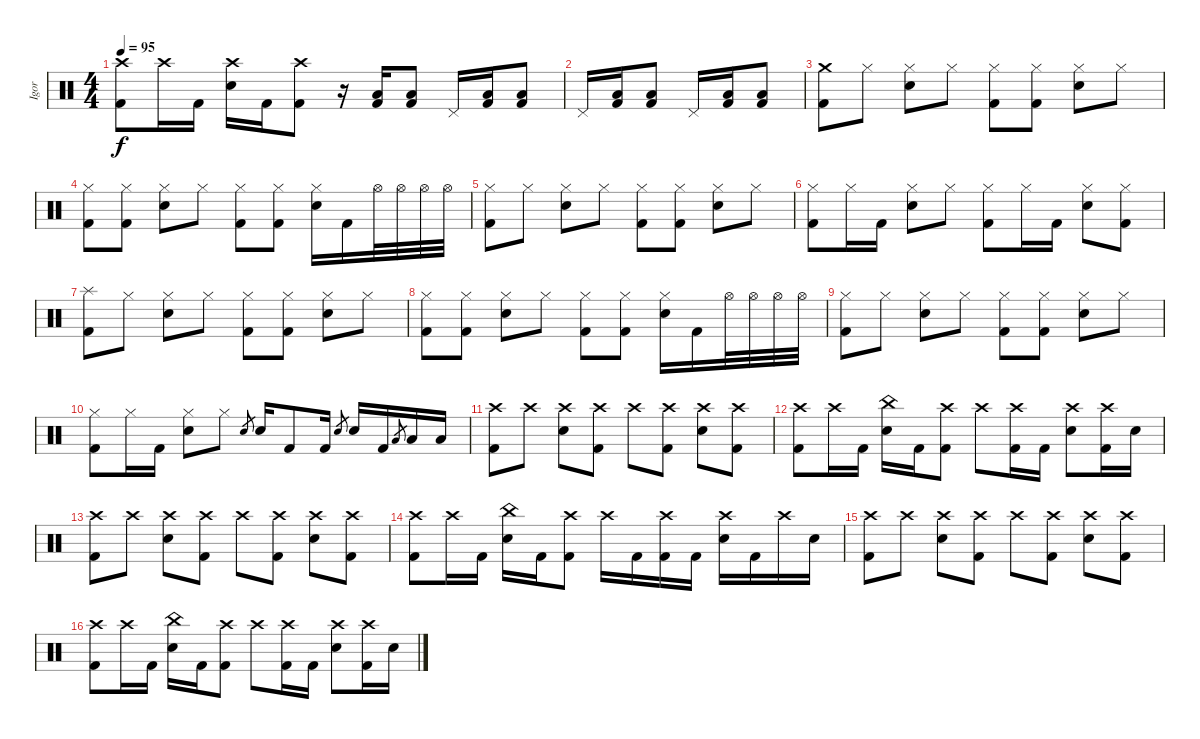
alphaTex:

\track ("Igor" "Igor") {instrument percussion}
\staff {score}
\articulation defaults
\ts (4 4)
\tempo 95
\clef neutral
\ks c
("Crash high (hit)" "Kick (hit) 2").8{dy f} "Crash high (hit)".16 "Kick (hit) 2".16 ("Crash high (hit)" "Electric Snare (hit)").16 "Kick (hit) 2".16 ("Crash high (hit)" "Kick (hit) 2").8 r.16 ("Low Tom (hit)" "Kick (hit) 2").16 ("Low Tom (hit)" "Kick (hit) 2").8 "Pedal Hi-Hat (hit)".16 ("Low Tom (hit)" "Kick (hit) 2").16 ("Low Tom (hit)" "Kick (hit) 2").8 |
"Pedal Hi-Hat (hit)".16 ("Low Tom (hit)" "Kick (hit) 2").16 ("Low Tom (hit)" "Kick (hit) 2").8 "Pedal Hi-Hat (hit)".16 ("Low Tom (hit)" "Kick (hit) 2").16 ("Low Tom (hit)" "Kick (hit) 2").8 |
("Crash medium (hit)" "Kick (hit) 2").8 "Hi-Hat (closed)".8 ("Hi-Hat (closed)" "Electric Snare (hit)").8 "Hi-Hat (closed)".8 ("Hi-Hat (closed)" "Kick (hit) 2").8 ("Hi-Hat (closed)" "Kick (hit) 2").8 ("Hi-Hat (closed)" "Electric Snare (hit)").8 "Hi-Hat (closed)".8 |
("Hi-Hat (closed)" "Kick (hit) 2").8 ("Hi-Hat (closed)" "Kick (hit) 2").8 ("Hi-Hat (closed)" "Electric Snare (hit)").8 "Hi-Hat (closed)".8 ("Hi-Hat (closed)" "Kick (hit) 2").8 ("Hi-Hat (closed)" "Kick (hit) 2").8 ("Hi-Hat (closed)" "Electric Snare (hit)").16 "Kick (hit) 2".16 "Hi-Hat (open)".32 "Hi-Hat (open)".32 "Hi-Hat (open)".32 "Hi-Hat (open)".32 |
("Hi-Hat (closed)" "Kick (hit) 2").8 "Hi-Hat (closed)".8 ("Hi-Hat (closed)" "Electric Snare (hit)").8 "Hi-Hat (closed)".8 ("Hi-Hat (closed)" "Kick (hit) 2").8 ("Hi-Hat (closed)" "Kick (hit) 2").8 ("Hi-Hat (closed)" "Electric Snare (hit)").8 "Hi-Hat (closed)".8 |
("Hi-Hat (closed)" "Kick (hit) 2").8 "Hi-Hat (closed)".16 "Kick (hit) 2".16 ("Hi-Hat (closed)" "Electric Snare (hit)").8 "Hi-Hat (closed)".8 ("Hi-Hat (closed)" "Kick (hit) 2").8 "Hi-Hat (closed)".16 "Kick (hit) 2".16 ("Hi-Hat (closed)" "Electric Snare (hit)").8 ("Hi-Hat (closed)" "Kick (hit) 2").8 |
("Splash (hit)" "Kick (hit) 2").8 "Hi-Hat (closed)".8 ("Hi-Hat (closed)" "Electric Snare (hit)").8 "Hi-Hat (closed)".8 ("Hi-Hat (closed)" "Kick (hit) 2").8 ("Hi-Hat (closed)" "Kick (hit) 2").8 ("Hi-Hat (closed)" "Electric Snare (hit)").8 "Hi-Hat (closed)".8 |
("Hi-Hat (closed)" "Kick (hit) 2").8 ("Hi-Hat (closed)" "Kick (hit) 2").8 ("Hi-Hat (closed)" "Electric Snare (hit)").8 "Hi-Hat (closed)".8 ("Hi-Hat (closed)" "Kick (hit) 2").8 ("Hi-Hat (closed)" "Kick (hit) 2").8 ("Hi-Hat (closed)" "Electric Snare (hit)").16 "Kick (hit) 2".16 "Hi-Hat (open)".32 "Hi-Hat (open)".32 "Hi-Hat (open)".32 "Hi-Hat (open)".32 |
("Hi-Hat (closed)" "Kick (hit) 2").8 "Hi-Hat (closed)".8 ("Hi-Hat (closed)" "Electric Snare (hit)").8 "Hi-Hat (closed)".8 ("Hi-Hat (closed)" "Kick (hit) 2").8 ("Hi-Hat (closed)" "Kick (hit) 2").8 ("Hi-Hat (closed)" "Electric Snare (hit)").8 "Hi-Hat (closed)".8 |
("Hi-Hat (closed)" "Kick (hit) 2").8 "Hi-Hat (closed)".16 "Kick (hit) 2".16 ("Hi-Hat (closed)" "Electric Snare (hit)").8 "Hi-Hat (closed)".8 "Electric Snare (hit)".8{gr} "Electric Snare (hit)".16 "Kick (hit) 2".8 "Kick (hit) 2".16 "Electric Snare (hit)".8{gr} "Electric Snare (hit)".16 "Kick (hit) 2".16 "Low Tom (hit)".8{gr} "Low Tom (hit)".16 "Low Tom (hit)".16 |
("Crash high (hit)" "Kick (hit) 2").8 "Crash high (hit)".8 ("Crash high (hit)" "Electric Snare (hit)").8 ("Crash high (hit)" "Kick (hit) 2").8 "Crash high (hit)".8 ("Crash high (hit)" "Kick (hit) 2").8 ("Crash high (hit)" "Electric Snare (hit)").8 ("Crash high (hit)" "Kick (hit) 2").8 |
("Crash high (hit)" "Kick (hit) 2").8 "Crash high (hit)".16 "Kick (hit) 2".16 ("China (hit)" "Electric Snare (hit)").16 "Kick (hit) 2".16 ("Crash high (hit)" "Kick (hit) 2").8 "Crash high (hit)".8 ("Crash high (hit)" "Kick (hit) 2").16 "Kick (hit) 2".16 ("Crash high (hit)" "Electric Snare (hit)").8 ("Crash high (hit)" "Kick (hit) 2").16 "Electric Snare (hit)".16 |
("Crash high (hit)" "Kick (hit) 2").8 "Crash high (hit)".8 ("Crash high (hit)" "Electric Snare (hit)").8 ("Crash high (hit)" "Kick (hit) 2").8 "Crash high (hit)".8 ("Crash high (hit)" "Kick (hit) 2").8 ("Crash high (hit)" "Electric Snare (hit)").8 ("Crash high (hit)" "Kick (hit) 2").8 |
("Crash high (hit)" "Kick (hit) 2").8 "Crash high (hit)".16 "Kick (hit) 2".16 ("China (hit)" "Electric Snare (hit)").16 "Kick (hit) 2".16 ("Crash high (hit)" "Kick (hit) 2").8 "Crash high (hit)".16 "Kick (hit) 2".16 ("Crash high (hit)" "Kick (hit) 2").16 "Kick (hit) 2".16 ("Crash high (hit)" "Electric Snare (hit)").16 "Kick (hit) 2".16 "Crash high (hit)".16 "Electric Snare (hit)".16 |
("Crash high (hit)" "Kick (hit) 2").8 "Crash high (hit)".8 ("Crash high (hit)" "Electric Snare (hit)").8 ("Crash high (hit)" "Kick (hit) 2").8 "Crash high (hit)".8 ("Crash high (hit)" "Kick (hit) 2").8 ("Crash high (hit)" "Electric Snare (hit)").8 ("Crash high (hit)" "Kick (hit) 2").8 |
("Crash high (hit)" "Kick (hit) 2").8 "Crash high (hit)".16 "Kick (hit) 2".16 ("China (hit)" "Electric Snare (hit)").16 "Kick (hit) 2".16 ("Crash high (hit)" "Kick (hit) 2").8 "Crash high (hit)".8 ("Crash high (hit)" "Kick (hit) 2").16 "Kick (hit) 2".16 ("Crash high (hit)" "Electric Snare (hit)").8 ("Crash high (hit)" "Kick (hit) 2").16 "Electric Snare (hit)".16
